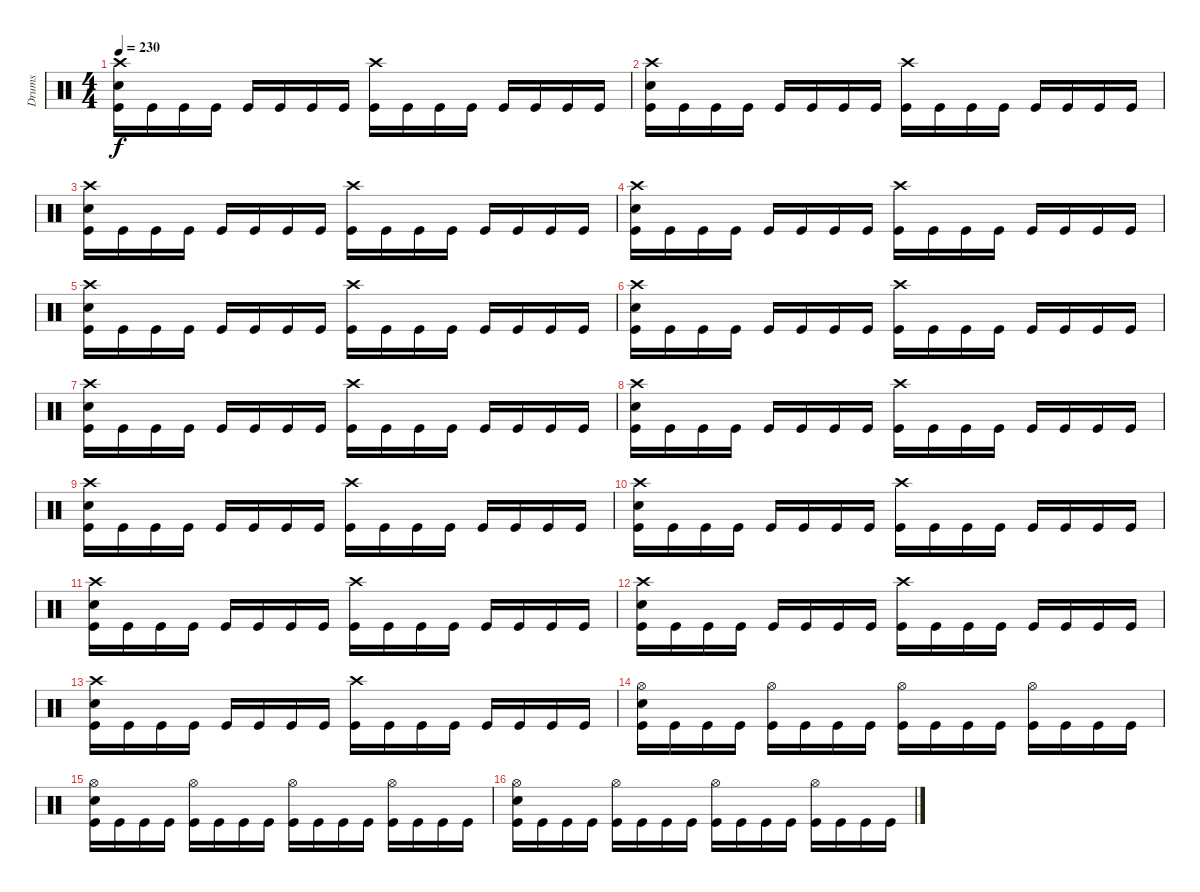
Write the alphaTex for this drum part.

\track ("Drums" "Drums") {instrument percussion}
\staff {score}
\articulation defaults
\ts (4 4)
\tempo 230
\clef neutral
\ks c
("Crash high (hit)" "Electric Snare (hit)" "Kick (hit)").16{dy f} "Kick (hit)".16 "Kick (hit)".16 "Kick (hit)".16 "Kick (hit)".16 "Kick (hit)".16 "Kick (hit)".16 "Kick (hit)".16 ("Crash high (hit)" "Kick (hit)").16 "Kick (hit)".16 "Kick (hit)".16 "Kick (hit)".16 "Kick (hit)".16 "Kick (hit)".16 "Kick (hit)".16 "Kick (hit)".16 |
("Crash high (hit)" "Electric Snare (hit)" "Kick (hit)").16 "Kick (hit)".16 "Kick (hit)".16 "Kick (hit)".16 "Kick (hit)".16 "Kick (hit)".16 "Kick (hit)".16 "Kick (hit)".16 ("Crash high (hit)" "Kick (hit)").16 "Kick (hit)".16 "Kick (hit)".16 "Kick (hit)".16 "Kick (hit)".16 "Kick (hit)".16 "Kick (hit)".16 "Kick (hit)".16 |
("Crash high (hit)" "Electric Snare (hit)" "Kick (hit)").16 "Kick (hit)".16 "Kick (hit)".16 "Kick (hit)".16 "Kick (hit)".16 "Kick (hit)".16 "Kick (hit)".16 "Kick (hit)".16 ("Crash high (hit)" "Kick (hit)").16 "Kick (hit)".16 "Kick (hit)".16 "Kick (hit)".16 "Kick (hit)".16 "Kick (hit)".16 "Kick (hit)".16 "Kick (hit)".16 |
("Crash high (hit)" "Electric Snare (hit)" "Kick (hit)").16 "Kick (hit)".16 "Kick (hit)".16 "Kick (hit)".16 "Kick (hit)".16 "Kick (hit)".16 "Kick (hit)".16 "Kick (hit)".16 ("Crash high (hit)" "Kick (hit)").16 "Kick (hit)".16 "Kick (hit)".16 "Kick (hit)".16 "Kick (hit)".16 "Kick (hit)".16 "Kick (hit)".16 "Kick (hit)".16 |
("Crash high (hit)" "Electric Snare (hit)" "Kick (hit)").16 "Kick (hit)".16 "Kick (hit)".16 "Kick (hit)".16 "Kick (hit)".16 "Kick (hit)".16 "Kick (hit)".16 "Kick (hit)".16 ("Crash high (hit)" "Kick (hit)").16 "Kick (hit)".16 "Kick (hit)".16 "Kick (hit)".16 "Kick (hit)".16 "Kick (hit)".16 "Kick (hit)".16 "Kick (hit)".16 |
("Crash high (hit)" "Electric Snare (hit)" "Kick (hit)").16 "Kick (hit)".16 "Kick (hit)".16 "Kick (hit)".16 "Kick (hit)".16 "Kick (hit)".16 "Kick (hit)".16 "Kick (hit)".16 ("Crash high (hit)" "Kick (hit)").16 "Kick (hit)".16 "Kick (hit)".16 "Kick (hit)".16 "Kick (hit)".16 "Kick (hit)".16 "Kick (hit)".16 "Kick (hit)".16 |
("Crash high (hit)" "Electric Snare (hit)" "Kick (hit)").16 "Kick (hit)".16 "Kick (hit)".16 "Kick (hit)".16 "Kick (hit)".16 "Kick (hit)".16 "Kick (hit)".16 "Kick (hit)".16 ("Crash high (hit)" "Kick (hit)").16 "Kick (hit)".16 "Kick (hit)".16 "Kick (hit)".16 "Kick (hit)".16 "Kick (hit)".16 "Kick (hit)".16 "Kick (hit)".16 |
("Crash high (hit)" "Electric Snare (hit)" "Kick (hit)").16 "Kick (hit)".16 "Kick (hit)".16 "Kick (hit)".16 "Kick (hit)".16 "Kick (hit)".16 "Kick (hit)".16 "Kick (hit)".16 ("Crash high (hit)" "Kick (hit)").16 "Kick (hit)".16 "Kick (hit)".16 "Kick (hit)".16 "Kick (hit)".16 "Kick (hit)".16 "Kick (hit)".16 "Kick (hit)".16 |
("Crash high (hit)" "Electric Snare (hit)" "Kick (hit)").16 "Kick (hit)".16 "Kick (hit)".16 "Kick (hit)".16 "Kick (hit)".16 "Kick (hit)".16 "Kick (hit)".16 "Kick (hit)".16 ("Crash high (hit)" "Kick (hit)").16 "Kick (hit)".16 "Kick (hit)".16 "Kick (hit)".16 "Kick (hit)".16 "Kick (hit)".16 "Kick (hit)".16 "Kick (hit)".16 |
("Crash high (hit)" "Electric Snare (hit)" "Kick (hit)").16 "Kick (hit)".16 "Kick (hit)".16 "Kick (hit)".16 "Kick (hit)".16 "Kick (hit)".16 "Kick (hit)".16 "Kick (hit)".16 ("Crash high (hit)" "Kick (hit)").16 "Kick (hit)".16 "Kick (hit)".16 "Kick (hit)".16 "Kick (hit)".16 "Kick (hit)".16 "Kick (hit)".16 "Kick (hit)".16 |
("Crash high (hit)" "Electric Snare (hit)" "Kick (hit)").16 "Kick (hit)".16 "Kick (hit)".16 "Kick (hit)".16 "Kick (hit)".16 "Kick (hit)".16 "Kick (hit)".16 "Kick (hit)".16 ("Crash high (hit)" "Kick (hit)").16 "Kick (hit)".16 "Kick (hit)".16 "Kick (hit)".16 "Kick (hit)".16 "Kick (hit)".16 "Kick (hit)".16 "Kick (hit)".16 |
("Crash high (hit)" "Electric Snare (hit)" "Kick (hit)").16 "Kick (hit)".16 "Kick (hit)".16 "Kick (hit)".16 "Kick (hit)".16 "Kick (hit)".16 "Kick (hit)".16 "Kick (hit)".16 ("Crash high (hit)" "Kick (hit)").16 "Kick (hit)".16 "Kick (hit)".16 "Kick (hit)".16 "Kick (hit)".16 "Kick (hit)".16 "Kick (hit)".16 "Kick (hit)".16 |
("Crash high (hit)" "Electric Snare (hit)" "Kick (hit)").16 "Kick (hit)".16 "Kick (hit)".16 "Kick (hit)".16 "Kick (hit)".16 "Kick (hit)".16 "Kick (hit)".16 "Kick (hit)".16 ("Crash high (hit)" "Kick (hit)").16 "Kick (hit)".16 "Kick (hit)".16 "Kick (hit)".16 "Kick (hit)".16 "Kick (hit)".16 "Kick (hit)".16 "Kick (hit)".16 |
("Hi-Hat (open)" "Electric Snare (hit)" "Kick (hit)").16 "Kick (hit)".16 "Kick (hit)".16 "Kick (hit)".16 ("Hi-Hat (open)" "Kick (hit)").16 "Kick (hit)".16 "Kick (hit)".16 "Kick (hit)".16 ("Hi-Hat (open)" "Kick (hit)").16 "Kick (hit)".16 "Kick (hit)".16 "Kick (hit)".16 ("Hi-Hat (open)" "Kick (hit)").16 "Kick (hit)".16 "Kick (hit)".16 "Kick (hit)".16 |
("Hi-Hat (open)" "Electric Snare (hit)" "Kick (hit)").16 "Kick (hit)".16 "Kick (hit)".16 "Kick (hit)".16 ("Hi-Hat (open)" "Kick (hit)").16 "Kick (hit)".16 "Kick (hit)".16 "Kick (hit)".16 ("Hi-Hat (open)" "Kick (hit)").16 "Kick (hit)".16 "Kick (hit)".16 "Kick (hit)".16 ("Hi-Hat (open)" "Kick (hit)").16 "Kick (hit)".16 "Kick (hit)".16 "Kick (hit)".16 |
("Hi-Hat (open)" "Electric Snare (hit)" "Kick (hit)").16 "Kick (hit)".16 "Kick (hit)".16 "Kick (hit)".16 ("Hi-Hat (open)" "Kick (hit)").16 "Kick (hit)".16 "Kick (hit)".16 "Kick (hit)".16 ("Hi-Hat (open)" "Kick (hit)").16 "Kick (hit)".16 "Kick (hit)".16 "Kick (hit)".16 ("Hi-Hat (open)" "Kick (hit)").16 "Kick (hit)".16 "Kick (hit)".16 "Kick (hit)".16
